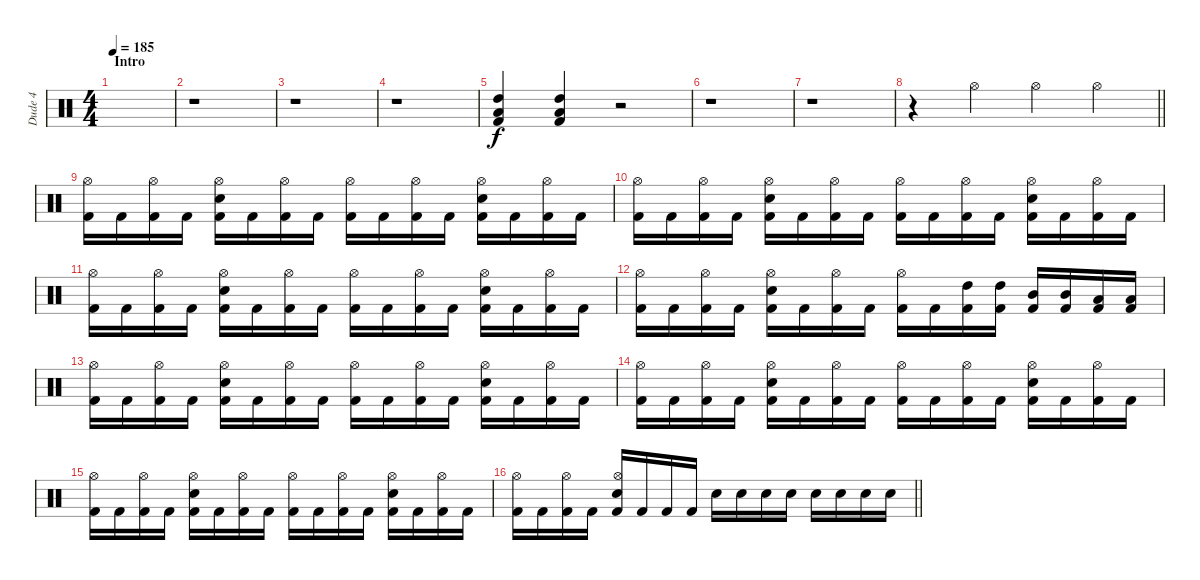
\track ("Dude 4" "Dude 4") {instrument percussion}
\staff {score}
\articulation defaults
\ts (4 4)
\section ("" "Intro")
\tempo 185
\clef neutral
\ks c
|
r.1 |
r.1 |
r.1 |
("High Tom (hit)" "Low Tom (hit)" "Kick (hit) 2").4 ("High Tom (hit)" "Low Tom (hit)" "Kick (hit) 2").4 r.2 |
r.1 |
r.1 |
\barLineRight lightlight
r.4 "Hi-Hat (open)".4 "Hi-Hat (open)".4 "Hi-Hat (open)".4 |
\section ("" "")
("Hi-Hat (open)" "Kick (hit) 2").16 "Kick (hit) 2".16 ("Hi-Hat (open)" "Kick (hit) 2").16 "Kick (hit) 2".16 ("Hi-Hat (open)" "Electric Snare (hit)" "Kick (hit) 2").16 "Kick (hit) 2".16 ("Hi-Hat (open)" "Kick (hit) 2").16 "Kick (hit) 2".16 ("Hi-Hat (open)" "Kick (hit) 2").16 "Kick (hit) 2".16 ("Hi-Hat (open)" "Kick (hit) 2").16 "Kick (hit) 2".16 ("Hi-Hat (open)" "Electric Snare (hit)" "Kick (hit) 2").16 "Kick (hit) 2".16 ("Hi-Hat (open)" "Kick (hit) 2").16 "Kick (hit) 2".16 |
("Hi-Hat (open)" "Kick (hit) 2").16 "Kick (hit) 2".16 ("Hi-Hat (open)" "Kick (hit) 2").16 "Kick (hit) 2".16 ("Hi-Hat (open)" "Electric Snare (hit)" "Kick (hit) 2").16 "Kick (hit) 2".16 ("Hi-Hat (open)" "Kick (hit) 2").16 "Kick (hit) 2".16 ("Hi-Hat (open)" "Kick (hit) 2").16 "Kick (hit) 2".16 ("Hi-Hat (open)" "Kick (hit) 2").16 "Kick (hit) 2".16 ("Hi-Hat (open)" "Electric Snare (hit)" "Kick (hit) 2").16 "Kick (hit) 2".16 ("Hi-Hat (open)" "Kick (hit) 2").16 "Kick (hit) 2".16 |
("Hi-Hat (open)" "Kick (hit) 2").16 "Kick (hit) 2".16 ("Hi-Hat (open)" "Kick (hit) 2").16 "Kick (hit) 2".16 ("Hi-Hat (open)" "Electric Snare (hit)" "Kick (hit) 2").16 "Kick (hit) 2".16 ("Hi-Hat (open)" "Kick (hit) 2").16 "Kick (hit) 2".16 ("Hi-Hat (open)" "Kick (hit) 2").16 "Kick (hit) 2".16 ("Hi-Hat (open)" "Kick (hit) 2").16 "Kick (hit) 2".16 ("Hi-Hat (open)" "Electric Snare (hit)" "Kick (hit) 2").16 "Kick (hit) 2".16 ("Hi-Hat (open)" "Kick (hit) 2").16 "Kick (hit) 2".16 |
("Hi-Hat (open)" "Kick (hit) 2").16 "Kick (hit) 2".16 ("Hi-Hat (open)" "Kick (hit) 2").16 "Kick (hit) 2".16 ("Hi-Hat (open)" "Electric Snare (hit)" "Kick (hit) 2").16 "Kick (hit) 2".16 ("Hi-Hat (open)" "Kick (hit) 2").16 "Kick (hit) 2".16 ("Hi-Hat (open)" "Kick (hit) 2").16 "Kick (hit) 2".16 ("High Tom (hit)" "Kick (hit) 2").16 ("High Tom (hit)" "Kick (hit) 2").16 ("Mid Tom (hit)" "Kick (hit) 2").16 ("Mid Tom (hit)" "Kick (hit) 2").16 ("Low Tom (hit)" "Kick (hit) 2").16 ("Low Tom (hit)" "Kick (hit) 2").16 |
("Hi-Hat (open)" "Kick (hit) 2").16 "Kick (hit) 2".16 ("Hi-Hat (open)" "Kick (hit) 2").16 "Kick (hit) 2".16 ("Hi-Hat (open)" "Electric Snare (hit)" "Kick (hit) 2").16 "Kick (hit) 2".16 ("Hi-Hat (open)" "Kick (hit) 2").16 "Kick (hit) 2".16 ("Hi-Hat (open)" "Kick (hit) 2").16 "Kick (hit) 2".16 ("Hi-Hat (open)" "Kick (hit) 2").16 "Kick (hit) 2".16 ("Hi-Hat (open)" "Electric Snare (hit)" "Kick (hit) 2").16 "Kick (hit) 2".16 ("Hi-Hat (open)" "Kick (hit) 2").16 "Kick (hit) 2".16 |
("Hi-Hat (open)" "Kick (hit) 2").16 "Kick (hit) 2".16 ("Hi-Hat (open)" "Kick (hit) 2").16 "Kick (hit) 2".16 ("Hi-Hat (open)" "Electric Snare (hit)" "Kick (hit) 2").16 "Kick (hit) 2".16 ("Hi-Hat (open)" "Kick (hit) 2").16 "Kick (hit) 2".16 ("Hi-Hat (open)" "Kick (hit) 2").16 "Kick (hit) 2".16 ("Hi-Hat (open)" "Kick (hit) 2").16 "Kick (hit) 2".16 ("Hi-Hat (open)" "Electric Snare (hit)" "Kick (hit) 2").16 "Kick (hit) 2".16 ("Hi-Hat (open)" "Kick (hit) 2").16 "Kick (hit) 2".16 |
("Hi-Hat (open)" "Kick (hit) 2").16 "Kick (hit) 2".16 ("Hi-Hat (open)" "Kick (hit) 2").16 "Kick (hit) 2".16 ("Hi-Hat (open)" "Electric Snare (hit)" "Kick (hit) 2").16 "Kick (hit) 2".16 ("Hi-Hat (open)" "Kick (hit) 2").16 "Kick (hit) 2".16 ("Hi-Hat (open)" "Kick (hit) 2").16 "Kick (hit) 2".16 ("Hi-Hat (open)" "Kick (hit) 2").16 "Kick (hit) 2".16 ("Hi-Hat (open)" "Electric Snare (hit)" "Kick (hit) 2").16 "Kick (hit) 2".16 ("Hi-Hat (open)" "Kick (hit) 2").16 "Kick (hit) 2".16 |
\barLineRight lightlight
("Hi-Hat (open)" "Kick (hit) 2").16 "Kick (hit) 2".16 ("Hi-Hat (open)" "Kick (hit) 2").16 "Kick (hit) 2".16 ("Hi-Hat (open)" "Electric Snare (hit)" "Kick (hit) 2").16 "Kick (hit) 2".16 "Kick (hit) 2".16 "Kick (hit) 2".16 "Electric Snare (hit)".16 "Electric Snare (hit)".16 "Electric Snare (hit)".16 "Electric Snare (hit)".16 "Electric Snare (hit)".16 "Electric Snare (hit)".16 "Electric Snare (hit)".16 "Electric Snare (hit)".16
